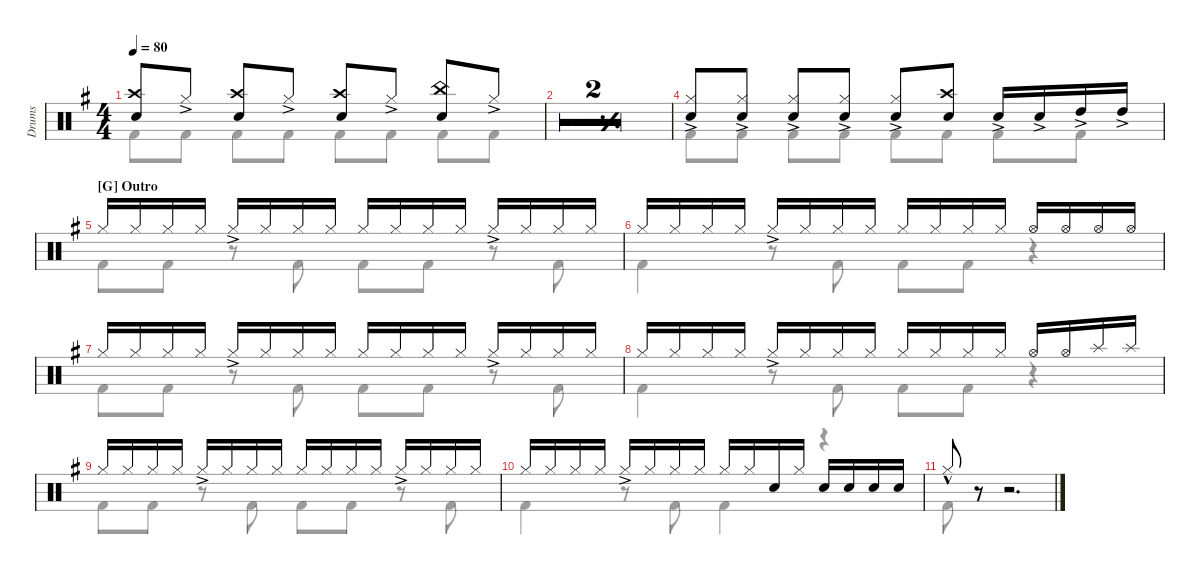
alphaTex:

\hideDynamics
\bracketExtendMode nobrackets
\otherSystemsTrackNameOrientation horizontal
\track ("Drums" "Drums") {defaultSystemsLayout 4 multiBarRest instrument percussion}
\staff {score}
\articulation defaults
\voice
\ts (4 4)
\tempo 80
\clef neutral
\ks g
("Crash high (hit)"{acc forcenatural} "Snare (hit) 2"{acc forcenatural}).8{dy f beam Up} "Hi-Hat (closed)"{ac acc forcenatural}.8{beam Up} ("Snare (hit) 2"{acc forcenatural} "Crash high (hit)"{acc forcenatural}).8{beam Up} "Hi-Hat (closed)"{ac acc forcenatural}.8{beam Up} ("Snare (hit) 2"{acc forcenatural} "Crash high (hit)"{acc forcenatural}).8{beam Up} "Hi-Hat (closed)"{ac acc forcenatural}.8{beam Up} ("China (hit)"{acc forcenatural} "Snare (hit) 2"{acc forcenatural}).8{beam Up} "Hi-Hat (closed)"{ac acc forcenatural}.8{beam Up} |
\simile simple
|
|
\simile none
("Snare (hit) 2"{acc forcenatural} "Hi-Hat (closed)"{ac acc forcenatural}).8{beam Up} ("Snare (hit) 2"{acc forcenatural} "Hi-Hat (closed)"{ac acc forcenatural}).8{beam Up} ("Snare (hit) 2"{acc forcenatural} "Hi-Hat (closed)"{ac acc forcenatural}).8{beam Up} ("Snare (hit) 2"{acc forcenatural} "Hi-Hat (closed)"{ac acc forcenatural}).8{beam Up} ("Snare (hit) 2"{acc forcenatural} "Hi-Hat (closed)"{ac acc forcenatural}).8{beam Up} ("Snare (hit) 2"{acc forcenatural} "Crash high (hit)"{acc forcenatural}).8{beam Up} "Snare (hit) 2"{ac acc forcenatural}.16{beam Up} "Snare (hit) 2"{ac acc forcenatural}.16{beam Up} "High Tom (hit)"{ac acc forcenatural}.16{beam Up} "High Tom (hit)"{ac acc forcenatural}.16{beam Up} |
\section ("G" "Outro")
"Hi-Hat (closed)"{acc forcenatural}.16{beam Up} "Hi-Hat (closed)"{acc forcenatural}.16{beam Up} "Hi-Hat (closed)"{acc forcenatural}.16{beam Up} "Hi-Hat (closed)"{acc forcenatural}.16{beam Up} "Hi-Hat (closed)"{ac acc forcenatural}.16{beam Up} "Hi-Hat (closed)"{acc forcenatural}.16{beam Up} "Hi-Hat (closed)"{acc forcenatural}.16{beam Up} "Hi-Hat (closed)"{acc forcenatural}.16{beam Up} "Hi-Hat (closed)"{acc forcenatural}.16{beam Up} "Hi-Hat (closed)"{acc forcenatural}.16{beam Up} "Hi-Hat (closed)"{acc forcenatural}.16{beam Up} "Hi-Hat (closed)"{acc forcenatural}.16{beam Up} "Hi-Hat (closed)"{ac acc forcenatural}.16{beam Up} "Hi-Hat (closed)"{acc forcenatural}.16{beam Up} "Hi-Hat (closed)"{acc forcenatural}.16{beam Up} "Hi-Hat (closed)"{acc forcenatural}.16{beam Up} |
"Hi-Hat (closed)"{acc forcenatural}.16{beam Up} "Hi-Hat (closed)"{acc forcenatural}.16{beam Up} "Hi-Hat (closed)"{acc forcenatural}.16{beam Up} "Hi-Hat (closed)"{acc forcenatural}.16{beam Up} "Hi-Hat (closed)"{ac acc forcenatural}.16{beam Up} "Hi-Hat (closed)"{acc forcenatural}.16{beam Up} "Hi-Hat (closed)"{acc forcenatural}.16{beam Up} "Hi-Hat (closed)"{acc forcenatural}.16{beam Up} "Hi-Hat (closed)"{acc forcenatural}.16{beam Up} "Hi-Hat (closed)"{acc forcenatural}.16{beam Up} "Hi-Hat (closed)"{acc forcenatural}.16{beam Up} "Hi-Hat (closed)"{acc forcenatural}.16{beam Up} "Hi-Hat (open)"{acc forcenatural}.16{beam Up} "Hi-Hat (open)"{acc forcenatural}.16{beam Up} "Hi-Hat (open)"{acc forcenatural}.16{beam Up} "Hi-Hat (open)"{acc forcenatural}.16{beam Up} |
"Hi-Hat (closed)"{acc forcenatural}.16{beam Up} "Hi-Hat (closed)"{acc forcenatural}.16{beam Up} "Hi-Hat (closed)"{acc forcenatural}.16{beam Up} "Hi-Hat (closed)"{acc forcenatural}.16{beam Up} "Hi-Hat (closed)"{ac acc forcenatural}.16{beam Up} "Hi-Hat (closed)"{acc forcenatural}.16{beam Up} "Hi-Hat (closed)"{acc forcenatural}.16{beam Up} "Hi-Hat (closed)"{acc forcenatural}.16{beam Up} "Hi-Hat (closed)"{acc forcenatural}.16{beam Up} "Hi-Hat (closed)"{acc forcenatural}.16{beam Up} "Hi-Hat (closed)"{acc forcenatural}.16{beam Up} "Hi-Hat (closed)"{acc forcenatural}.16{beam Up} "Hi-Hat (closed)"{ac acc forcenatural}.16{beam Up} "Hi-Hat (closed)"{acc forcenatural}.16{beam Up} "Hi-Hat (closed)"{acc forcenatural}.16{beam Up} "Hi-Hat (closed)"{acc forcenatural}.16{beam Up} |
"Hi-Hat (closed)"{acc forcenatural}.16{beam Up} "Hi-Hat (closed)"{acc forcenatural}.16{beam Up} "Hi-Hat (closed)"{acc forcenatural}.16{beam Up} "Hi-Hat (closed)"{acc forcenatural}.16{beam Up} "Hi-Hat (closed)"{ac acc forcenatural}.16{beam Up} "Hi-Hat (closed)"{acc forcenatural}.16{beam Up} "Hi-Hat (closed)"{acc forcenatural}.16{beam Up} "Hi-Hat (closed)"{acc forcenatural}.16{beam Up} "Hi-Hat (closed)"{acc forcenatural}.16{beam Up} "Hi-Hat (closed)"{acc forcenatural}.16{beam Up} "Hi-Hat (closed)"{acc forcenatural}.16{beam Up} "Hi-Hat (closed)"{acc forcenatural}.16{beam Up} "Hi-Hat (open)"{acc forcenatural}.16{beam Up} "Hi-Hat (open)"{acc forcenatural}.16{beam Up} "Splash (hit)"{acc forcenatural}.16{beam Up} "Splash (hit)"{acc forcenatural}.16{beam Up} |
"Hi-Hat (closed)"{acc forcenatural}.16{beam Up} "Hi-Hat (closed)"{acc forcenatural}.16{beam Up} "Hi-Hat (closed)"{acc forcenatural}.16{beam Up} "Hi-Hat (closed)"{acc forcenatural}.16{beam Up} "Hi-Hat (closed)"{ac acc forcenatural}.16{beam Up} "Hi-Hat (closed)"{acc forcenatural}.16{beam Up} "Hi-Hat (closed)"{acc forcenatural}.16{beam Up} "Hi-Hat (closed)"{acc forcenatural}.16{beam Up} "Hi-Hat (closed)"{acc forcenatural}.16{beam Up} "Hi-Hat (closed)"{acc forcenatural}.16{beam Up} "Hi-Hat (closed)"{acc forcenatural}.16{beam Up} "Hi-Hat (closed)"{acc forcenatural}.16{beam Up} "Hi-Hat (closed)"{ac acc forcenatural}.16{beam Up} "Hi-Hat (closed)"{acc forcenatural}.16{beam Up} "Hi-Hat (closed)"{acc forcenatural}.16{beam Up} "Hi-Hat (closed)"{acc forcenatural}.16{beam Up} |
"Hi-Hat (closed)"{acc forcenatural}.16{beam Up} "Hi-Hat (closed)"{acc forcenatural}.16{beam Up} "Hi-Hat (closed)"{acc forcenatural}.16{beam Up} "Hi-Hat (closed)"{acc forcenatural}.16{beam Up} "Hi-Hat (closed)"{ac acc forcenatural}.16{beam Up} "Hi-Hat (closed)"{acc forcenatural}.16{beam Up} "Hi-Hat (closed)"{acc forcenatural}.16{beam Up} "Hi-Hat (closed)"{acc forcenatural}.16{beam Up} "Hi-Hat (closed)"{acc forcenatural}.16{beam Up} "Hi-Hat (closed)"{acc forcenatural}.16{beam Up} "Snare (hit) 2"{acc forcenatural}.16{beam Up} "Hi-Hat (closed)"{acc forcenatural}.16{beam Up} "Snare (hit) 2"{acc forcenatural}.16{beam Up} "Snare (hit) 2"{acc forcenatural}.16{beam Up} "Snare (hit) 2"{acc forcenatural}.16{beam Up} "Snare (hit) 2"{acc forcenatural}.16{beam Up} |
"Hi-Hat (closed)"{hac acc forcenatural}.8{beam Up} r.8{beam Up} r.2{d beam Up}
\voice
\clef neutral
\ottava regular
\simile none
\ks g "Kick (hit) 2"{acc forcenatural}.8{dy mf beam Down} "Kick (hit) 2"{acc forcenatural}.8{beam Down} "Kick (hit) 2"{acc forcenatural}.8{beam Down} "Kick (hit) 2"{acc forcenatural}.8{beam Down} "Kick (hit) 2"{acc forcenatural}.8{beam Down} "Kick (hit) 2"{acc forcenatural}.8{beam Down} "Kick (hit) 2"{acc forcenatural}.8{beam Down} "Kick (hit) 2"{acc forcenatural}.8{beam Down}
|
\simile simple
|
|
\simile none "Kick (hit) 2"{acc forcenatural}.8{beam Down} "Kick (hit) 2"{acc forcenatural}.8{beam Down} "Kick (hit) 2"{acc forcenatural}.8{beam Down} "Kick (hit) 2"{acc forcenatural}.8{beam Down} "Kick (hit) 2"{acc forcenatural}.8{beam Down} "Kick (hit) 2"{acc forcenatural}.8{beam Down} "Kick (hit) 2"{acc forcenatural}.8{beam Down} "Kick (hit) 2"{acc forcenatural}.8{beam Down}
|
"Kick (hit) 2"{acc forcenatural}.8{beam Down} "Kick (hit) 2"{acc forcenatural}.8{beam Down} r.8{beam Down} "Kick (hit) 2"{acc forcenatural}.8{beam Down} "Kick (hit) 2"{acc forcenatural}.8{beam Down} "Kick (hit) 2"{acc forcenatural}.8{beam Down} r.8{beam Down} "Kick (hit) 2"{acc forcenatural}.8{beam Down} |
"Kick (hit) 2"{acc forcenatural}.4{beam Down} r.8{beam Down} "Kick (hit) 2"{acc forcenatural}.8{beam Down} "Kick (hit) 2"{acc forcenatural}.8{beam Down} "Kick (hit) 2"{acc forcenatural}.8{beam Down} r.4{beam Down} |
"Kick (hit) 2"{acc forcenatural}.8{beam Down} "Kick (hit) 2"{acc forcenatural}.8{beam Down} r.8{beam Down} "Kick (hit) 2"{acc forcenatural}.8{beam Down} "Kick (hit) 2"{acc forcenatural}.8{beam Down} "Kick (hit) 2"{acc forcenatural}.8{beam Down} r.8{beam Down} "Kick (hit) 2"{acc forcenatural}.8{beam Down} |
"Kick (hit) 2"{acc forcenatural}.4{beam Down} r.8{beam Down} "Kick (hit) 2"{acc forcenatural}.8{beam Down} "Kick (hit) 2"{acc forcenatural}.8{beam Down} "Kick (hit) 2"{acc forcenatural}.8{beam Down} r.4{beam Down} |
"Kick (hit) 2"{acc forcenatural}.8{beam Down} "Kick (hit) 2"{acc forcenatural}.8{beam Down} r.8{beam Down} "Kick (hit) 2"{acc forcenatural}.8{beam Down} "Kick (hit) 2"{acc forcenatural}.8{beam Down} "Kick (hit) 2"{acc forcenatural}.8{beam Down} r.8{beam Down} "Kick (hit) 2"{acc forcenatural}.8{beam Down} |
"Kick (hit) 2"{acc forcenatural}.4{beam Down} r.8{beam Down} "Kick (hit) 2"{acc forcenatural}.8{beam Down} "Kick (hit) 2"{acc forcenatural}.4{beam Down} r.4{beam Down} |
"Kick (hit) 2"{acc forcenatural}.8{beam Down} r.8{beam Down} r.2{d beam Down}
